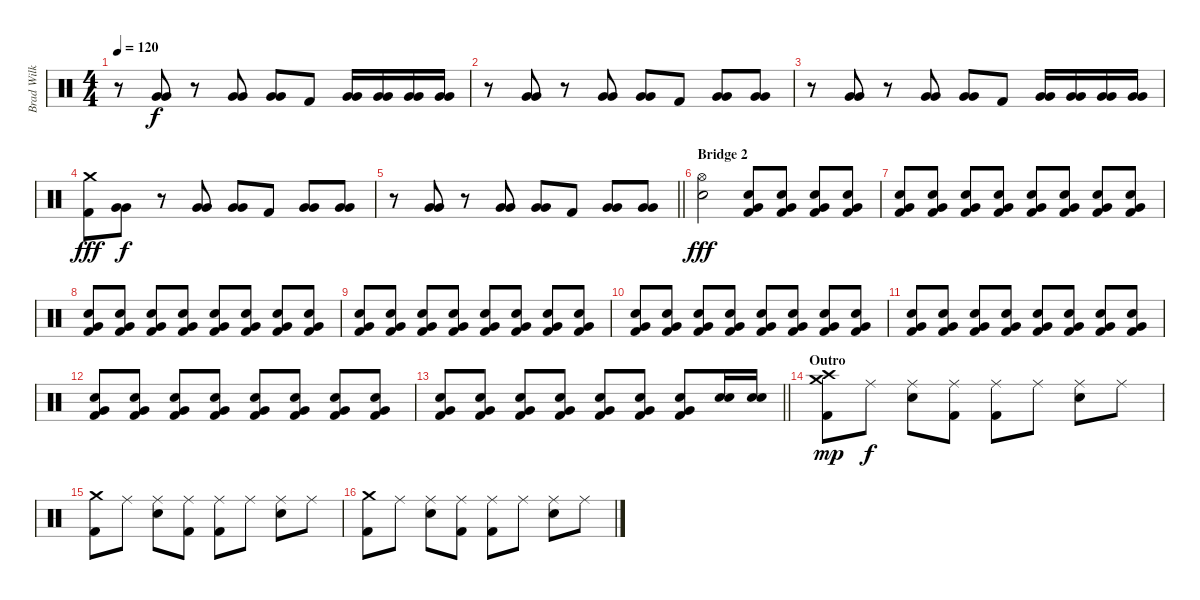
\track ("Brad Wilk" "Brad Wilk") {instrument percussion}
\staff {score}
\articulation defaults
\ts (4 4)
\tempo 120
\clef neutral
\ks c
r.8{dy f} ("Very Low Tom (hit)" "Very Low Tom (hit)").8{bu 240} r.8 ("Very Low Tom (hit)" "Very Low Tom (hit)").8{bu 240} ("Very Low Tom (hit)" "Very Low Tom (hit)").8{bu 240} "Kick (hit) 2".8 ("Very Low Tom (hit)" "Very Low Tom (hit)").16 ("Very Low Tom (hit)" "Very Low Tom (hit)").16 ("Very Low Tom (hit)" "Very Low Tom (hit)").16 ("Very Low Tom (hit)" "Very Low Tom (hit)").16 |
r.8 ("Very Low Tom (hit)" "Very Low Tom (hit)").8{bu 240} r.8 ("Very Low Tom (hit)" "Very Low Tom (hit)").8{bu 240} ("Very Low Tom (hit)" "Very Low Tom (hit)").8{bu 240} "Kick (hit) 2".8 ("Very Low Tom (hit)" "Very Low Tom (hit)").8{bu 240} ("Very Low Tom (hit)" "Very Low Tom (hit)").8{bu 120} |
r.8 ("Very Low Tom (hit)" "Very Low Tom (hit)").8{bu 240} r.8 ("Very Low Tom (hit)" "Very Low Tom (hit)").8{bu 240} ("Very Low Tom (hit)" "Very Low Tom (hit)").8{bu 240} "Kick (hit) 2".8 ("Very Low Tom (hit)" "Very Low Tom (hit)").16 ("Very Low Tom (hit)" "Very Low Tom (hit)").16 ("Very Low Tom (hit)" "Very Low Tom (hit)").16 ("Very Low Tom (hit)" "Very Low Tom (hit)").16 |
("Crash medium (hit)" "Kick (hit) 2").8{dy fff} ("Very Low Tom (hit)" "Very Low Tom (hit)").8{bu 240 dy f} r.8 ("Very Low Tom (hit)" "Very Low Tom (hit)").8{bu 240} ("Very Low Tom (hit)" "Very Low Tom (hit)").8{bu 240} "Kick (hit) 2".8 ("Very Low Tom (hit)" "Very Low Tom (hit)").8{bu 240} ("Very Low Tom (hit)" "Very Low Tom (hit)").8{bd 240} |
\barLineRight lightlight
r.8 ("Very Low Tom (hit)" "Very Low Tom (hit)").8{bu 240} r.8 ("Very Low Tom (hit)" "Very Low Tom (hit)").8{bu 240} ("Very Low Tom (hit)" "Very Low Tom (hit)").8{bu 240} "Kick (hit) 2".8 ("Very Low Tom (hit)" "Very Low Tom (hit)").8{bu 240} ("Very Low Tom (hit)" "Very Low Tom (hit)").8{bu 120} |
\section ("" "Bridge 2")
("Hi-Hat (open)" "Electric Snare (hit)").2{dy fff} ("Electric Snare (hit)" "Very Low Tom (hit)" "Kick (hit) 2").8{volume 4} ("Electric Snare (hit)" "Very Low Tom (hit)" "Kick (hit) 2").8{volume 8} ("Electric Snare (hit)" "Very Low Tom (hit)" "Kick (hit) 2").8 ("Electric Snare (hit)" "Very Low Tom (hit)" "Kick (hit) 2").8 |
("Electric Snare (hit)" "Very Low Tom (hit)" "Kick (hit) 2").8 ("Electric Snare (hit)" "Very Low Tom (hit)" "Kick (hit) 2").8 ("Electric Snare (hit)" "Very Low Tom (hit)" "Kick (hit) 2").8 ("Electric Snare (hit)" "Very Low Tom (hit)" "Kick (hit) 2").8 ("Electric Snare (hit)" "Very Low Tom (hit)" "Kick (hit) 2").8 ("Electric Snare (hit)" "Very Low Tom (hit)" "Kick (hit) 2").8 ("Electric Snare (hit)" "Very Low Tom (hit)" "Kick (hit) 2").8 ("Electric Snare (hit)" "Very Low Tom (hit)" "Kick (hit) 2").8 |
("Electric Snare (hit)" "Very Low Tom (hit)" "Kick (hit) 2").8 ("Electric Snare (hit)" "Very Low Tom (hit)" "Kick (hit) 2").8 ("Electric Snare (hit)" "Very Low Tom (hit)" "Kick (hit) 2").8 ("Electric Snare (hit)" "Very Low Tom (hit)" "Kick (hit) 2").8 ("Electric Snare (hit)" "Very Low Tom (hit)" "Kick (hit) 2").8 ("Electric Snare (hit)" "Very Low Tom (hit)" "Kick (hit) 2").8 ("Electric Snare (hit)" "Very Low Tom (hit)" "Kick (hit) 2").8 ("Electric Snare (hit)" "Very Low Tom (hit)" "Kick (hit) 2").8 |
("Electric Snare (hit)" "Very Low Tom (hit)" "Kick (hit) 2").8 ("Electric Snare (hit)" "Very Low Tom (hit)" "Kick (hit) 2").8 ("Electric Snare (hit)" "Very Low Tom (hit)" "Kick (hit) 2").8 ("Electric Snare (hit)" "Very Low Tom (hit)" "Kick (hit) 2").8 ("Electric Snare (hit)" "Very Low Tom (hit)" "Kick (hit) 2").8 ("Electric Snare (hit)" "Very Low Tom (hit)" "Kick (hit) 2").8 ("Electric Snare (hit)" "Very Low Tom (hit)" "Kick (hit) 2").8 ("Electric Snare (hit)" "Very Low Tom (hit)" "Kick (hit) 2").8 |
("Electric Snare (hit)" "Very Low Tom (hit)" "Kick (hit) 2").8 ("Electric Snare (hit)" "Very Low Tom (hit)" "Kick (hit) 2").8 ("Electric Snare (hit)" "Very Low Tom (hit)" "Kick (hit) 2").8 ("Electric Snare (hit)" "Very Low Tom (hit)" "Kick (hit) 2").8 ("Electric Snare (hit)" "Very Low Tom (hit)" "Kick (hit) 2").8 ("Electric Snare (hit)" "Very Low Tom (hit)" "Kick (hit) 2").8 ("Electric Snare (hit)" "Very Low Tom (hit)" "Kick (hit) 2").8 ("Electric Snare (hit)" "Very Low Tom (hit)" "Kick (hit) 2").8 |
("Electric Snare (hit)" "Very Low Tom (hit)" "Kick (hit) 2").8{volume 8} ("Electric Snare (hit)" "Very Low Tom (hit)" "Kick (hit) 2").8{volume 16} ("Electric Snare (hit)" "Very Low Tom (hit)" "Kick (hit) 2").8 ("Electric Snare (hit)" "Very Low Tom (hit)" "Kick (hit) 2").8 ("Electric Snare (hit)" "Very Low Tom (hit)" "Kick (hit) 2").8 ("Electric Snare (hit)" "Very Low Tom (hit)" "Kick (hit) 2").8 ("Electric Snare (hit)" "Very Low Tom (hit)" "Kick (hit) 2").8 ("Electric Snare (hit)" "Very Low Tom (hit)" "Kick (hit) 2").8 |
("Electric Snare (hit)" "Very Low Tom (hit)" "Kick (hit) 2").8 ("Electric Snare (hit)" "Very Low Tom (hit)" "Kick (hit) 2").8 ("Electric Snare (hit)" "Very Low Tom (hit)" "Kick (hit) 2").8 ("Electric Snare (hit)" "Very Low Tom (hit)" "Kick (hit) 2").8 ("Electric Snare (hit)" "Very Low Tom (hit)" "Kick (hit) 2").8 ("Electric Snare (hit)" "Very Low Tom (hit)" "Kick (hit) 2").8 ("Electric Snare (hit)" "Very Low Tom (hit)" "Kick (hit) 2").8 ("Electric Snare (hit)" "Very Low Tom (hit)" "Kick (hit) 2").8 |
\barLineRight lightlight
("Electric Snare (hit)" "Very Low Tom (hit)" "Kick (hit) 2").8 ("Electric Snare (hit)" "Very Low Tom (hit)" "Kick (hit) 2").8 ("Electric Snare (hit)" "Very Low Tom (hit)" "Kick (hit) 2").8 ("Electric Snare (hit)" "Very Low Tom (hit)" "Kick (hit) 2").8 ("Electric Snare (hit)" "Very Low Tom (hit)" "Kick (hit) 2").8 ("Electric Snare (hit)" "Very Low Tom (hit)" "Kick (hit) 2").8 ("Electric Snare (hit)" "Very Low Tom (hit)" "Kick (hit) 2").8 ("Electric Snare (hit)" "Electric Snare (hit)").16 ("Electric Snare (hit)" "Electric Snare (hit)").16 |
\section ("" "Outro")
("Crash medium (hit)" "Crash high (hit)" "Kick (hit) 2").8{dy mp} "Ride (middle)".8{dy f} ("Ride (middle)" "Electric Snare (hit)").8 ("Ride (middle)" "Kick (hit) 2").8 ("Ride (middle)" "Kick (hit) 2").8 "Ride (middle)".8 ("Ride (middle)" "Electric Snare (hit)").8 "Ride (middle)".8 |
("Crash medium (hit)" "Kick (hit) 2").8 "Ride (middle)".8 ("Ride (middle)" "Electric Snare (hit)").8 ("Ride (middle)" "Kick (hit) 2").8 ("Ride (middle)" "Kick (hit) 2").8 "Ride (middle)".8 ("Ride (middle)" "Electric Snare (hit)").8 "Ride (middle)".8 |
("Crash medium (hit)" "Kick (hit) 2").8 "Ride (middle)".8 ("Ride (middle)" "Electric Snare (hit)").8 ("Ride (middle)" "Kick (hit) 2").8 ("Ride (middle)" "Kick (hit) 2").8 "Ride (middle)".8 ("Ride (middle)" "Electric Snare (hit)").8 "Ride (middle)".8
